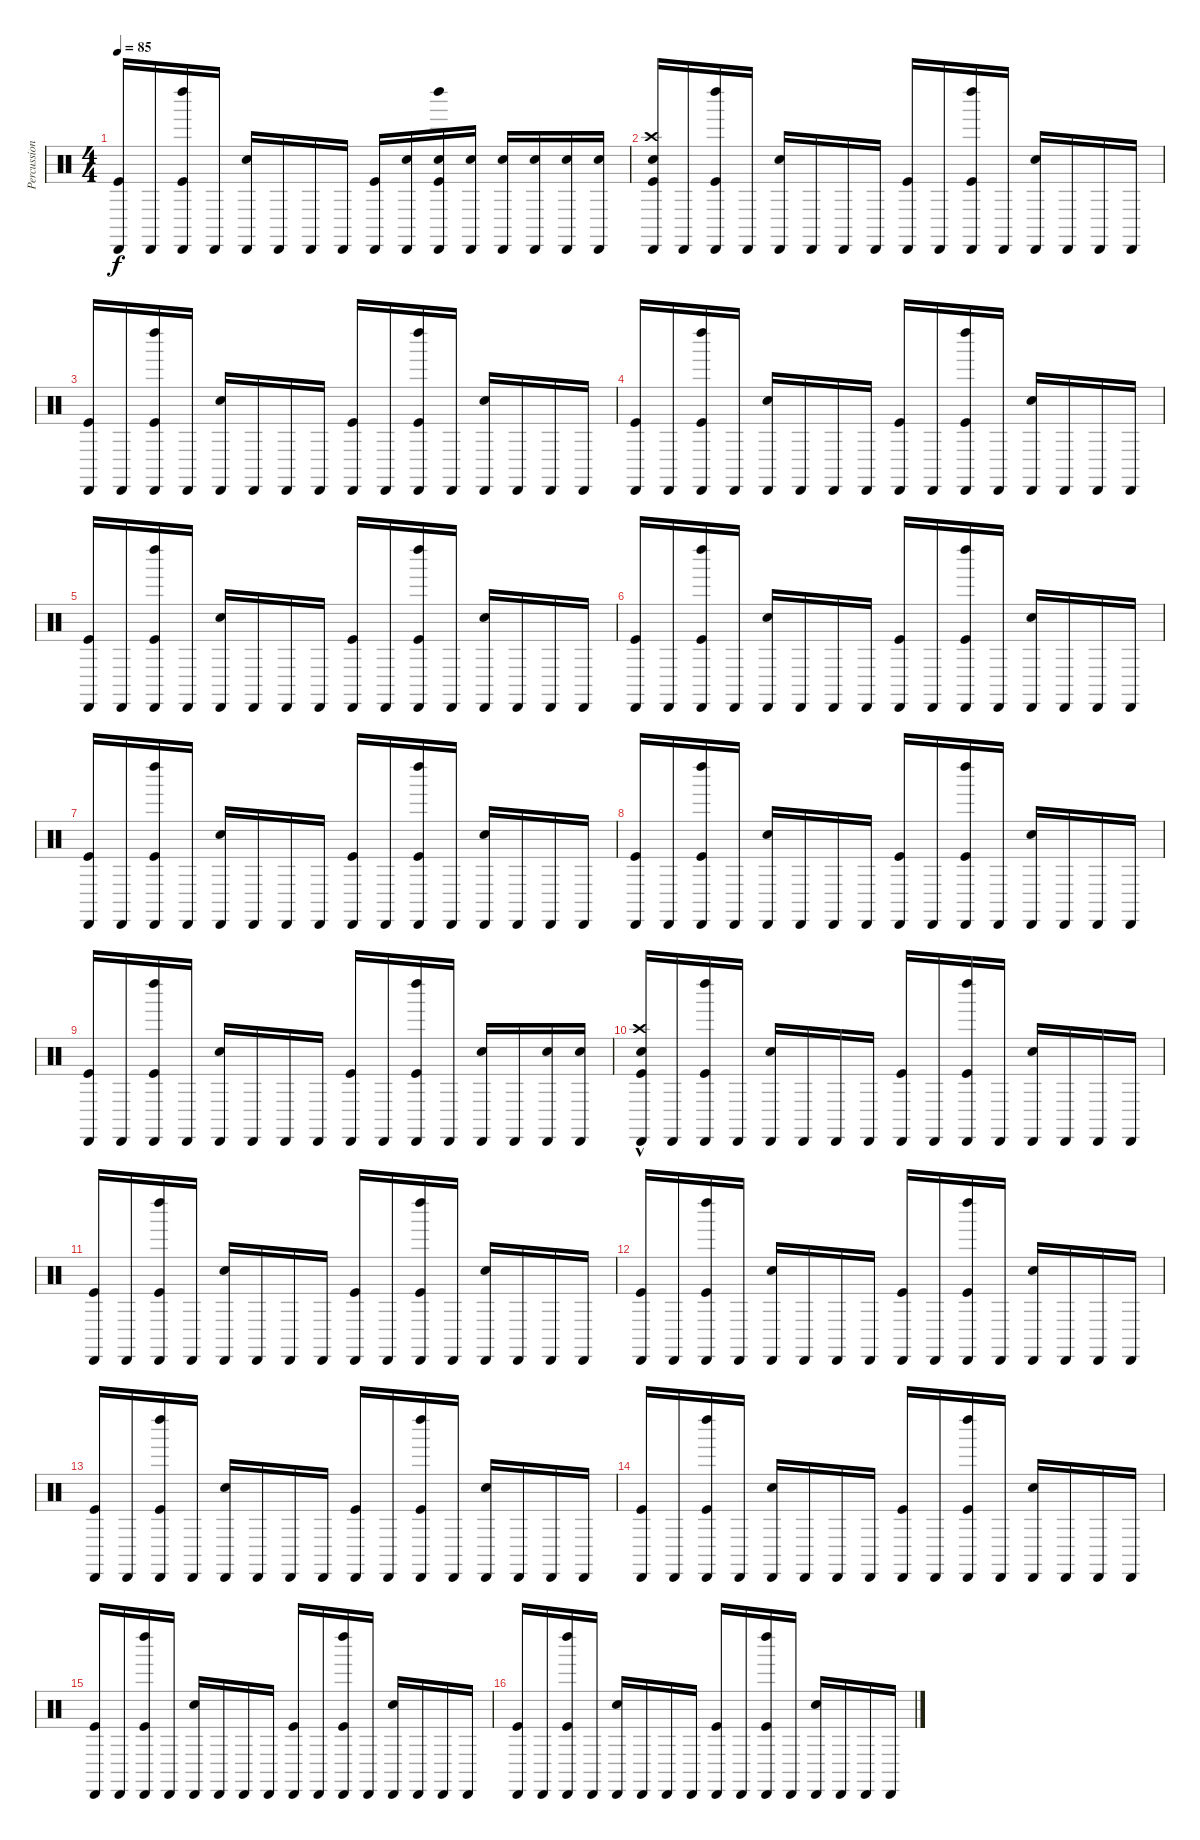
\track ("Percussions" "Percussion") {instrument percussion}
\staff {score}
\articulation defaults
\ts (4 4)
\tempo 85
\clef neutral
\ks c
("Cabasa (hit)" "Kick (hit)").16{dy f} "Cabasa (hit)".16 ("Kick (hit)" "Cabasa (hit)" "Left Maraca (hit)").16 "Cabasa (hit)".16 ("Snare (hit) 2" "Cabasa (hit)").16 "Cabasa (hit)".16 "Cabasa (hit)".16 "Cabasa (hit)".16 ("Kick (hit)" "Cabasa (hit)").16 ("Cabasa (hit)" "Snare (hit) 2").16 ("Kick (hit)" "Cabasa (hit)" "Left Maraca (hit)" "Snare (hit) 2").16 ("Cabasa (hit)" "Snare (hit) 2").16 ("Cabasa (hit)" "Snare (hit) 2").16 ("Cabasa (hit)" "Snare (hit) 2").16 ("Cabasa (hit)" "Snare (hit) 2").16 ("Cabasa (hit)" "Snare (hit) 2").16 |
("Cabasa (hit)" "Kick (hit)" "Snare (hit) 2" "Crash high (hit)").16 "Cabasa (hit)".16 ("Kick (hit)" "Cabasa (hit)" "Left Maraca (hit)").16 "Cabasa (hit)".16 ("Snare (hit) 2" "Cabasa (hit)").16 "Cabasa (hit)".16 "Cabasa (hit)".16 "Cabasa (hit)".16 ("Kick (hit)" "Cabasa (hit)").16 "Cabasa (hit)".16 ("Kick (hit)" "Cabasa (hit)" "Left Maraca (hit)").16 "Cabasa (hit)".16 ("Snare (hit) 2" "Cabasa (hit)").16 "Cabasa (hit)".16 "Cabasa (hit)".16 "Cabasa (hit)".16 |
("Cabasa (hit)" "Kick (hit)").16 "Cabasa (hit)".16 ("Kick (hit)" "Cabasa (hit)" "Left Maraca (hit)").16 "Cabasa (hit)".16 ("Snare (hit) 2" "Cabasa (hit)").16 "Cabasa (hit)".16 "Cabasa (hit)".16 "Cabasa (hit)".16 ("Kick (hit)" "Cabasa (hit)").16 "Cabasa (hit)".16 ("Kick (hit)" "Cabasa (hit)" "Left Maraca (hit)").16 "Cabasa (hit)".16 ("Snare (hit) 2" "Cabasa (hit)").16 "Cabasa (hit)".16 "Cabasa (hit)".16 "Cabasa (hit)".16 |
("Cabasa (hit)" "Kick (hit)").16 "Cabasa (hit)".16 ("Kick (hit)" "Cabasa (hit)" "Left Maraca (hit)").16 "Cabasa (hit)".16 ("Snare (hit) 2" "Cabasa (hit)").16 "Cabasa (hit)".16 "Cabasa (hit)".16 "Cabasa (hit)".16 ("Kick (hit)" "Cabasa (hit)").16 "Cabasa (hit)".16 ("Kick (hit)" "Cabasa (hit)" "Left Maraca (hit)").16 "Cabasa (hit)".16 ("Snare (hit) 2" "Cabasa (hit)").16 "Cabasa (hit)".16 "Cabasa (hit)".16 "Cabasa (hit)".16 |
("Cabasa (hit)" "Kick (hit)").16 "Cabasa (hit)".16 ("Kick (hit)" "Cabasa (hit)" "Left Maraca (hit)").16 "Cabasa (hit)".16 ("Snare (hit) 2" "Cabasa (hit)").16 "Cabasa (hit)".16 "Cabasa (hit)".16 "Cabasa (hit)".16 ("Kick (hit)" "Cabasa (hit)").16 "Cabasa (hit)".16 ("Kick (hit)" "Cabasa (hit)" "Left Maraca (hit)").16 "Cabasa (hit)".16 ("Snare (hit) 2" "Cabasa (hit)").16 "Cabasa (hit)".16 "Cabasa (hit)".16 "Cabasa (hit)".16 |
("Cabasa (hit)" "Kick (hit)").16 "Cabasa (hit)".16 ("Kick (hit)" "Cabasa (hit)" "Left Maraca (hit)").16 "Cabasa (hit)".16 ("Snare (hit) 2" "Cabasa (hit)").16 "Cabasa (hit)".16 "Cabasa (hit)".16 "Cabasa (hit)".16 ("Kick (hit)" "Cabasa (hit)").16 "Cabasa (hit)".16 ("Kick (hit)" "Cabasa (hit)" "Left Maraca (hit)").16 "Cabasa (hit)".16 ("Snare (hit) 2" "Cabasa (hit)").16 "Cabasa (hit)".16 "Cabasa (hit)".16 "Cabasa (hit)".16 |
("Cabasa (hit)" "Kick (hit)").16 "Cabasa (hit)".16 ("Kick (hit)" "Cabasa (hit)" "Left Maraca (hit)").16 "Cabasa (hit)".16 ("Snare (hit) 2" "Cabasa (hit)").16 "Cabasa (hit)".16 "Cabasa (hit)".16 "Cabasa (hit)".16 ("Kick (hit)" "Cabasa (hit)").16 "Cabasa (hit)".16 ("Kick (hit)" "Cabasa (hit)" "Left Maraca (hit)").16 "Cabasa (hit)".16 ("Snare (hit) 2" "Cabasa (hit)").16 "Cabasa (hit)".16 "Cabasa (hit)".16 "Cabasa (hit)".16 |
("Cabasa (hit)" "Kick (hit)").16 "Cabasa (hit)".16 ("Kick (hit)" "Cabasa (hit)" "Left Maraca (hit)").16 "Cabasa (hit)".16 ("Snare (hit) 2" "Cabasa (hit)").16 "Cabasa (hit)".16 "Cabasa (hit)".16 "Cabasa (hit)".16 ("Kick (hit)" "Cabasa (hit)").16 "Cabasa (hit)".16 ("Kick (hit)" "Cabasa (hit)" "Left Maraca (hit)").16 "Cabasa (hit)".16 ("Snare (hit) 2" "Cabasa (hit)").16 "Cabasa (hit)".16 "Cabasa (hit)".16 "Cabasa (hit)".16 |
("Cabasa (hit)" "Kick (hit)").16 "Cabasa (hit)".16 ("Kick (hit)" "Cabasa (hit)" "Left Maraca (hit)").16 "Cabasa (hit)".16 ("Snare (hit) 2" "Cabasa (hit)").16 "Cabasa (hit)".16 "Cabasa (hit)".16 "Cabasa (hit)".16 ("Kick (hit)" "Cabasa (hit)").16 "Cabasa (hit)".16 ("Kick (hit)" "Cabasa (hit)" "Left Maraca (hit)").16 "Cabasa (hit)".16 ("Cabasa (hit)" "Snare (hit) 2").16 "Cabasa (hit)".16 ("Cabasa (hit)" "Snare (hit) 2").16 ("Cabasa (hit)" "Snare (hit) 2").16 |
("Cabasa (hit)" "Kick (hit)" "Snare (hit) 2" "Crash high (hit)"{hac}).16 "Cabasa (hit)".16 ("Kick (hit)" "Cabasa (hit)" "Left Maraca (hit)").16 "Cabasa (hit)".16 ("Snare (hit) 2" "Cabasa (hit)").16 "Cabasa (hit)".16 "Cabasa (hit)".16 "Cabasa (hit)".16 ("Kick (hit)" "Cabasa (hit)").16 "Cabasa (hit)".16 ("Kick (hit)" "Cabasa (hit)" "Left Maraca (hit)").16 "Cabasa (hit)".16 ("Snare (hit) 2" "Cabasa (hit)").16 "Cabasa (hit)".16 "Cabasa (hit)".16 "Cabasa (hit)".16 |
("Cabasa (hit)" "Kick (hit)").16 "Cabasa (hit)".16 ("Kick (hit)" "Cabasa (hit)" "Left Maraca (hit)").16 "Cabasa (hit)".16 ("Snare (hit) 2" "Cabasa (hit)").16 "Cabasa (hit)".16 "Cabasa (hit)".16 "Cabasa (hit)".16 ("Kick (hit)" "Cabasa (hit)").16 "Cabasa (hit)".16 ("Kick (hit)" "Cabasa (hit)" "Left Maraca (hit)").16 "Cabasa (hit)".16 ("Snare (hit) 2" "Cabasa (hit)").16 "Cabasa (hit)".16 "Cabasa (hit)".16 "Cabasa (hit)".16 |
("Cabasa (hit)" "Kick (hit)").16 "Cabasa (hit)".16 ("Kick (hit)" "Cabasa (hit)" "Left Maraca (hit)").16 "Cabasa (hit)".16 ("Snare (hit) 2" "Cabasa (hit)").16 "Cabasa (hit)".16 "Cabasa (hit)".16 "Cabasa (hit)".16 ("Kick (hit)" "Cabasa (hit)").16 "Cabasa (hit)".16 ("Kick (hit)" "Cabasa (hit)" "Left Maraca (hit)").16 "Cabasa (hit)".16 ("Snare (hit) 2" "Cabasa (hit)").16 "Cabasa (hit)".16 "Cabasa (hit)".16 "Cabasa (hit)".16 |
("Cabasa (hit)" "Kick (hit)").16 "Cabasa (hit)".16 ("Kick (hit)" "Cabasa (hit)" "Left Maraca (hit)").16 "Cabasa (hit)".16 ("Snare (hit) 2" "Cabasa (hit)").16 "Cabasa (hit)".16 "Cabasa (hit)".16 "Cabasa (hit)".16 ("Kick (hit)" "Cabasa (hit)").16 "Cabasa (hit)".16 ("Kick (hit)" "Cabasa (hit)" "Left Maraca (hit)").16 "Cabasa (hit)".16 ("Snare (hit) 2" "Cabasa (hit)").16 "Cabasa (hit)".16 "Cabasa (hit)".16 "Cabasa (hit)".16 |
("Cabasa (hit)" "Kick (hit)").16 "Cabasa (hit)".16 ("Kick (hit)" "Cabasa (hit)" "Left Maraca (hit)").16 "Cabasa (hit)".16 ("Snare (hit) 2" "Cabasa (hit)").16 "Cabasa (hit)".16 "Cabasa (hit)".16 "Cabasa (hit)".16 ("Kick (hit)" "Cabasa (hit)").16 "Cabasa (hit)".16 ("Kick (hit)" "Cabasa (hit)" "Left Maraca (hit)").16 "Cabasa (hit)".16 ("Snare (hit) 2" "Cabasa (hit)").16 "Cabasa (hit)".16 "Cabasa (hit)".16 "Cabasa (hit)".16 |
("Cabasa (hit)" "Kick (hit)").16 "Cabasa (hit)".16 ("Kick (hit)" "Cabasa (hit)" "Left Maraca (hit)").16 "Cabasa (hit)".16 ("Snare (hit) 2" "Cabasa (hit)").16 "Cabasa (hit)".16 "Cabasa (hit)".16 "Cabasa (hit)".16 ("Kick (hit)" "Cabasa (hit)").16 "Cabasa (hit)".16 ("Kick (hit)" "Cabasa (hit)" "Left Maraca (hit)").16 "Cabasa (hit)".16 ("Snare (hit) 2" "Cabasa (hit)").16 "Cabasa (hit)".16 "Cabasa (hit)".16 "Cabasa (hit)".16 |
("Cabasa (hit)" "Kick (hit)").16 "Cabasa (hit)".16 ("Kick (hit)" "Cabasa (hit)" "Left Maraca (hit)").16 "Cabasa (hit)".16 ("Snare (hit) 2" "Cabasa (hit)").16 "Cabasa (hit)".16 "Cabasa (hit)".16 "Cabasa (hit)".16 ("Kick (hit)" "Cabasa (hit)").16 "Cabasa (hit)".16 ("Kick (hit)" "Cabasa (hit)" "Left Maraca (hit)").16 "Cabasa (hit)".16 ("Snare (hit) 2" "Cabasa (hit)").16 "Cabasa (hit)".16 "Cabasa (hit)".16 "Cabasa (hit)".16
